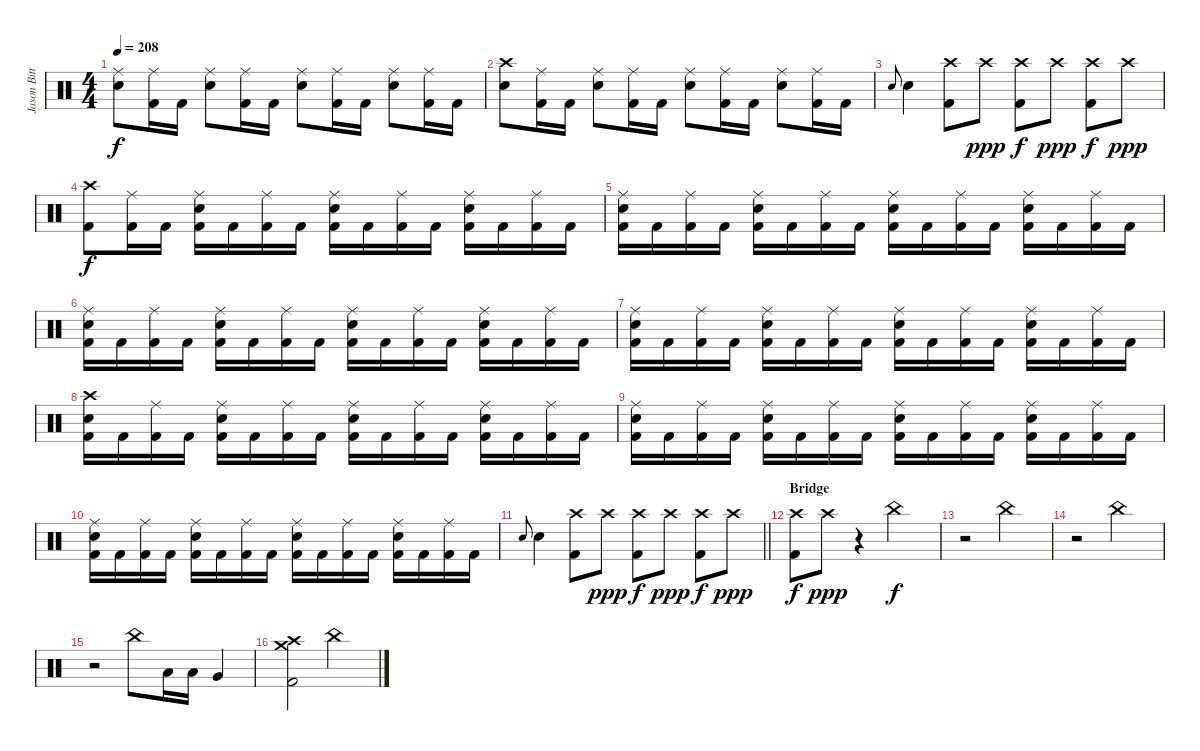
\track ("Jason Bittner" "Jason Bitt") {instrument percussion}
\staff {score}
\articulation defaults
\ts (4 4)
\tempo 208
\clef neutral
\ks c
("Ride (middle)" "Electric Snare (hit)").8{dy f} ("Ride (middle)" "Kick (hit) 2").16 "Kick (hit) 2".16 ("Ride (middle)" "Electric Snare (hit)").8 ("Ride (middle)" "Kick (hit) 2").16 "Kick (hit) 2".16 ("Ride (middle)" "Electric Snare (hit)").8 ("Ride (middle)" "Kick (hit) 2").16 "Kick (hit) 2".16 ("Ride (middle)" "Electric Snare (hit)").8 ("Ride (middle)" "Kick (hit) 2").16 "Kick (hit) 2".16 |
("Crash high (hit)" "Electric Snare (hit)").8 ("Ride (middle)" "Kick (hit) 2").16 "Kick (hit) 2".16 ("Ride (middle)" "Electric Snare (hit)").8 ("Ride (middle)" "Kick (hit) 2").16 "Kick (hit) 2".16 ("Ride (middle)" "Electric Snare (hit)").8 ("Ride (middle)" "Kick (hit) 2").16 "Kick (hit) 2".16 ("Ride (middle)" "Electric Snare (hit)").8 ("Ride (middle)" "Kick (hit) 2").16 "Kick (hit) 2".16 |
"Electric Snare (hit)".8{gr onbeat} "Electric Snare (hit)".4 ("Crash high (hit)" "Kick (hit) 2").8 "Crash high (hit)".8{dy ppp} ("Crash high (hit)" "Kick (hit) 2").8{dy f} "Crash high (hit)".8{dy ppp} ("Crash high (hit)" "Kick (hit) 2").8{dy f} "Crash high (hit)".8{dy ppp} |
("Crash high (hit)" "Kick (hit) 2").8{dy f} ("Ride (middle)" "Kick (hit) 2").16 "Kick (hit) 2".16 ("Ride (middle)" "Electric Snare (hit)" "Kick (hit) 2").16 "Kick (hit) 2".16 ("Ride (middle)" "Kick (hit) 2").16 "Kick (hit) 2".16 ("Ride (middle)" "Electric Snare (hit)" "Kick (hit) 2").16 "Kick (hit) 2".16 ("Ride (middle)" "Kick (hit) 2").16 "Kick (hit) 2".16 ("Ride (middle)" "Electric Snare (hit)" "Kick (hit) 2").16 "Kick (hit) 2".16 ("Ride (middle)" "Kick (hit) 2").16 "Kick (hit) 2".16 |
("Ride (middle)" "Electric Snare (hit)" "Kick (hit) 2").16 "Kick (hit) 2".16 ("Ride (middle)" "Kick (hit) 2").16 "Kick (hit) 2".16 ("Ride (middle)" "Electric Snare (hit)" "Kick (hit) 2").16 "Kick (hit) 2".16 ("Ride (middle)" "Kick (hit) 2").16 "Kick (hit) 2".16 ("Ride (middle)" "Electric Snare (hit)" "Kick (hit) 2").16 "Kick (hit) 2".16 ("Ride (middle)" "Kick (hit) 2").16 "Kick (hit) 2".16 ("Ride (middle)" "Electric Snare (hit)" "Kick (hit) 2").16 "Kick (hit) 2".16 ("Ride (middle)" "Kick (hit) 2").16 "Kick (hit) 2".16 |
("Ride (middle)" "Electric Snare (hit)" "Kick (hit) 2").16 "Kick (hit) 2".16 ("Ride (middle)" "Kick (hit) 2").16 "Kick (hit) 2".16 ("Ride (middle)" "Electric Snare (hit)" "Kick (hit) 2").16 "Kick (hit) 2".16 ("Ride (middle)" "Kick (hit) 2").16 "Kick (hit) 2".16 ("Ride (middle)" "Electric Snare (hit)" "Kick (hit) 2").16 "Kick (hit) 2".16 ("Ride (middle)" "Kick (hit) 2").16 "Kick (hit) 2".16 ("Ride (middle)" "Electric Snare (hit)" "Kick (hit) 2").16 "Kick (hit) 2".16 ("Ride (middle)" "Kick (hit) 2").16 "Kick (hit) 2".16 |
("Ride (middle)" "Electric Snare (hit)" "Kick (hit) 2").16 "Kick (hit) 2".16 ("Ride (middle)" "Kick (hit) 2").16 "Kick (hit) 2".16 ("Ride (middle)" "Electric Snare (hit)" "Kick (hit) 2").16 "Kick (hit) 2".16 ("Ride (middle)" "Kick (hit) 2").16 "Kick (hit) 2".16 ("Ride (middle)" "Electric Snare (hit)" "Kick (hit) 2").16 "Kick (hit) 2".16 ("Ride (middle)" "Kick (hit) 2").16 "Kick (hit) 2".16 ("Ride (middle)" "Electric Snare (hit)" "Kick (hit) 2").16 "Kick (hit) 2".16 ("Ride (middle)" "Kick (hit) 2").16 "Kick (hit) 2".16 |
("Crash high (hit)" "Electric Snare (hit)" "Kick (hit) 2").16 "Kick (hit) 2".16 ("Ride (middle)" "Kick (hit) 2").16 "Kick (hit) 2".16 ("Ride (middle)" "Electric Snare (hit)" "Kick (hit) 2").16 "Kick (hit) 2".16 ("Ride (middle)" "Kick (hit) 2").16 "Kick (hit) 2".16 ("Ride (middle)" "Electric Snare (hit)" "Kick (hit) 2").16 "Kick (hit) 2".16 ("Ride (middle)" "Kick (hit) 2").16 "Kick (hit) 2".16 ("Ride (middle)" "Electric Snare (hit)" "Kick (hit) 2").16 "Kick (hit) 2".16 ("Ride (middle)" "Kick (hit) 2").16 "Kick (hit) 2".16 |
("Ride (middle)" "Electric Snare (hit)" "Kick (hit) 2").16 "Kick (hit) 2".16 ("Ride (middle)" "Kick (hit) 2").16 "Kick (hit) 2".16 ("Ride (middle)" "Electric Snare (hit)" "Kick (hit) 2").16 "Kick (hit) 2".16 ("Ride (middle)" "Kick (hit) 2").16 "Kick (hit) 2".16 ("Ride (middle)" "Electric Snare (hit)" "Kick (hit) 2").16 "Kick (hit) 2".16 ("Ride (middle)" "Kick (hit) 2").16 "Kick (hit) 2".16 ("Ride (middle)" "Electric Snare (hit)" "Kick (hit) 2").16 "Kick (hit) 2".16 ("Ride (middle)" "Kick (hit) 2").16 "Kick (hit) 2".16 |
("Ride (middle)" "Electric Snare (hit)" "Kick (hit) 2").16 "Kick (hit) 2".16 ("Ride (middle)" "Kick (hit) 2").16 "Kick (hit) 2".16 ("Ride (middle)" "Electric Snare (hit)" "Kick (hit) 2").16 "Kick (hit) 2".16 ("Ride (middle)" "Kick (hit) 2").16 "Kick (hit) 2".16 ("Ride (middle)" "Electric Snare (hit)" "Kick (hit) 2").16 "Kick (hit) 2".16 ("Ride (middle)" "Kick (hit) 2").16 "Kick (hit) 2".16 ("Ride (middle)" "Electric Snare (hit)" "Kick (hit) 2").16 "Kick (hit) 2".16 ("Ride (middle)" "Kick (hit) 2").16 "Kick (hit) 2".16 |
\barLineRight lightlight "Electric Snare (hit)".8{gr onbeat} "Electric Snare (hit)".4
("Crash high (hit)" "Kick (hit) 2").8 "Crash high (hit)".8{dy ppp} ("Crash high (hit)" "Kick (hit) 2").8{dy f} "Crash high (hit)".8{dy ppp} ("Crash high (hit)" "Kick (hit) 2").8{dy f} "Crash high (hit)".8{dy ppp} |
\section ("" "Bridge")
("Crash high (hit)" "Kick (hit) 2").8{dy f} "Crash high (hit)".8{dy ppp} r.4 "China (hit)".2{dy f} |
r.2 "China (hit)".2 |
r.2 "China (hit)".2 |
r.2 "China (hit)".8 "Low Tom (hit)".16 "Low Tom (hit)".16 "Very Low Tom (hit)".4 |
("Crash medium (hit)" "Crash high (hit)" "Kick (hit) 2").2 "China (hit)".2
